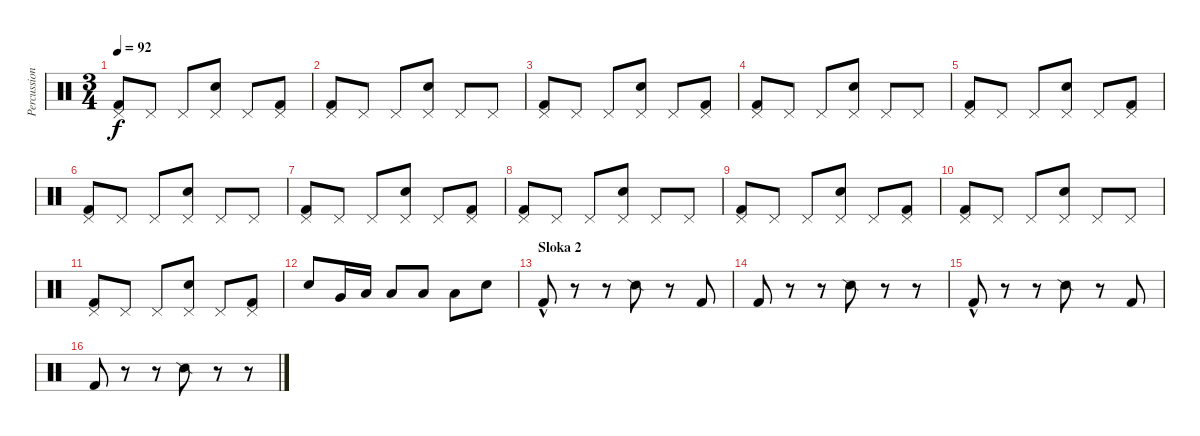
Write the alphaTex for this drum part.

\track ("Percussion" "Percussion") {instrument percussion}
\staff {score}
\articulation defaults
\ts (3 4)
\tempo 92
\clef neutral
\ks c
("Pedal Hi-Hat (hit)" "Kick (hit) 2").8{dy f} "Pedal Hi-Hat (hit)".8 "Pedal Hi-Hat (hit)".8 ("Pedal Hi-Hat (hit)" "Electric Snare (hit)").8 "Pedal Hi-Hat (hit)".8 ("Pedal Hi-Hat (hit)" "Kick (hit) 2").8 |
("Pedal Hi-Hat (hit)" "Kick (hit) 2").8 "Pedal Hi-Hat (hit)".8 "Pedal Hi-Hat (hit)".8 ("Pedal Hi-Hat (hit)" "Electric Snare (hit)").8 "Pedal Hi-Hat (hit)".8 "Pedal Hi-Hat (hit)".8 |
("Pedal Hi-Hat (hit)" "Kick (hit) 2").8 "Pedal Hi-Hat (hit)".8 "Pedal Hi-Hat (hit)".8 ("Pedal Hi-Hat (hit)" "Electric Snare (hit)").8 "Pedal Hi-Hat (hit)".8 ("Pedal Hi-Hat (hit)" "Kick (hit) 2").8 |
("Pedal Hi-Hat (hit)" "Kick (hit) 2").8 "Pedal Hi-Hat (hit)".8 "Pedal Hi-Hat (hit)".8 ("Pedal Hi-Hat (hit)" "Electric Snare (hit)").8 "Pedal Hi-Hat (hit)".8 "Pedal Hi-Hat (hit)".8 |
("Pedal Hi-Hat (hit)" "Kick (hit) 2").8 "Pedal Hi-Hat (hit)".8 "Pedal Hi-Hat (hit)".8 ("Pedal Hi-Hat (hit)" "Electric Snare (hit)").8 "Pedal Hi-Hat (hit)".8 ("Pedal Hi-Hat (hit)" "Kick (hit) 2").8 |
("Pedal Hi-Hat (hit)" "Kick (hit) 2").8 "Pedal Hi-Hat (hit)".8 "Pedal Hi-Hat (hit)".8 ("Pedal Hi-Hat (hit)" "Electric Snare (hit)").8 "Pedal Hi-Hat (hit)".8 "Pedal Hi-Hat (hit)".8 |
("Pedal Hi-Hat (hit)" "Kick (hit) 2").8 "Pedal Hi-Hat (hit)".8 "Pedal Hi-Hat (hit)".8 ("Pedal Hi-Hat (hit)" "Electric Snare (hit)").8 "Pedal Hi-Hat (hit)".8 ("Pedal Hi-Hat (hit)" "Kick (hit) 2").8 |
("Pedal Hi-Hat (hit)" "Kick (hit) 2").8 "Pedal Hi-Hat (hit)".8 "Pedal Hi-Hat (hit)".8 ("Pedal Hi-Hat (hit)" "Electric Snare (hit)").8 "Pedal Hi-Hat (hit)".8 "Pedal Hi-Hat (hit)".8 |
("Pedal Hi-Hat (hit)" "Kick (hit) 2").8 "Pedal Hi-Hat (hit)".8 "Pedal Hi-Hat (hit)".8 ("Pedal Hi-Hat (hit)" "Electric Snare (hit)").8 "Pedal Hi-Hat (hit)".8 ("Pedal Hi-Hat (hit)" "Kick (hit) 2").8 |
("Pedal Hi-Hat (hit)" "Kick (hit) 2").8 "Pedal Hi-Hat (hit)".8 "Pedal Hi-Hat (hit)".8 ("Pedal Hi-Hat (hit)" "Electric Snare (hit)").8 "Pedal Hi-Hat (hit)".8 "Pedal Hi-Hat (hit)".8 |
("Pedal Hi-Hat (hit)" "Kick (hit) 2").8 "Pedal Hi-Hat (hit)".8 "Pedal Hi-Hat (hit)".8 ("Pedal Hi-Hat (hit)" "Electric Snare (hit)").8 "Pedal Hi-Hat (hit)".8 ("Pedal Hi-Hat (hit)" "Kick (hit) 2").8 |
"Electric Snare (hit)".8 "Very Low Tom (hit)".16 "Low Tom (hit)".16 "Low Tom (hit)".8 "Low Tom (hit)".8 "Low Tom (hit)".8 "Snare (hit)".8 |
\section ("" "Sloka 2")
"Kick (hit) 2"{hac}.8 r.8 r.8 "Snare (side stick) 2".8 r.8 "Kick (hit) 2".8 |
"Kick (hit) 2".8 r.8 r.8 "Snare (side stick) 2".8 r.8 r.8 |
"Kick (hit) 2"{hac}.8 r.8 r.8 "Snare (side stick) 2".8 r.8 "Kick (hit) 2".8 |
"Kick (hit) 2".8 r.8 r.8 "Snare (side stick) 2".8 r.8 r.8
